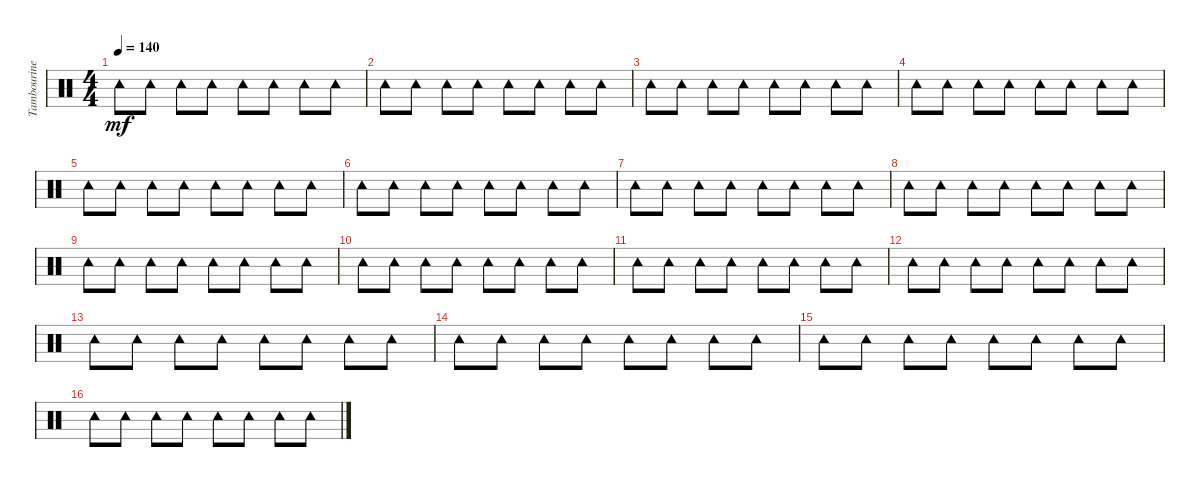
\track ("Tambourine" "Tambourine") {instrument percussion}
\staff {score}
\articulation defaults
\ts (4 4)
\tempo 140
\clef neutral
\ks c "Tambourine (hit)".8{dy mf} "Tambourine (hit)".8 "Tambourine (hit)".8 "Tambourine (hit)".8 "Tambourine (hit)".8 "Tambourine (hit)".8 "Tambourine (hit)".8 "Tambourine (hit)".8
|
"Tambourine (hit)".8 "Tambourine (hit)".8 "Tambourine (hit)".8 "Tambourine (hit)".8 "Tambourine (hit)".8 "Tambourine (hit)".8 "Tambourine (hit)".8 "Tambourine (hit)".8 |
"Tambourine (hit)".8 "Tambourine (hit)".8 "Tambourine (hit)".8 "Tambourine (hit)".8 "Tambourine (hit)".8 "Tambourine (hit)".8 "Tambourine (hit)".8 "Tambourine (hit)".8 |
"Tambourine (hit)".8 "Tambourine (hit)".8 "Tambourine (hit)".8 "Tambourine (hit)".8 "Tambourine (hit)".8 "Tambourine (hit)".8 "Tambourine (hit)".8 "Tambourine (hit)".8 |
"Tambourine (hit)".8 "Tambourine (hit)".8 "Tambourine (hit)".8 "Tambourine (hit)".8 "Tambourine (hit)".8 "Tambourine (hit)".8 "Tambourine (hit)".8 "Tambourine (hit)".8 |
"Tambourine (hit)".8 "Tambourine (hit)".8 "Tambourine (hit)".8 "Tambourine (hit)".8 "Tambourine (hit)".8 "Tambourine (hit)".8 "Tambourine (hit)".8 "Tambourine (hit)".8 |
"Tambourine (hit)".8 "Tambourine (hit)".8 "Tambourine (hit)".8 "Tambourine (hit)".8 "Tambourine (hit)".8 "Tambourine (hit)".8 "Tambourine (hit)".8 "Tambourine (hit)".8 |
"Tambourine (hit)".8 "Tambourine (hit)".8 "Tambourine (hit)".8 "Tambourine (hit)".8 "Tambourine (hit)".8 "Tambourine (hit)".8 "Tambourine (hit)".8 "Tambourine (hit)".8 |
"Tambourine (hit)".8 "Tambourine (hit)".8 "Tambourine (hit)".8 "Tambourine (hit)".8 "Tambourine (hit)".8 "Tambourine (hit)".8 "Tambourine (hit)".8 "Tambourine (hit)".8 |
"Tambourine (hit)".8 "Tambourine (hit)".8 "Tambourine (hit)".8 "Tambourine (hit)".8 "Tambourine (hit)".8 "Tambourine (hit)".8 "Tambourine (hit)".8 "Tambourine (hit)".8 |
"Tambourine (hit)".8 "Tambourine (hit)".8 "Tambourine (hit)".8 "Tambourine (hit)".8 "Tambourine (hit)".8 "Tambourine (hit)".8 "Tambourine (hit)".8 "Tambourine (hit)".8 |
"Tambourine (hit)".8 "Tambourine (hit)".8 "Tambourine (hit)".8 "Tambourine (hit)".8 "Tambourine (hit)".8 "Tambourine (hit)".8 "Tambourine (hit)".8 "Tambourine (hit)".8 |
"Tambourine (hit)".8 "Tambourine (hit)".8 "Tambourine (hit)".8 "Tambourine (hit)".8 "Tambourine (hit)".8 "Tambourine (hit)".8 "Tambourine (hit)".8 "Tambourine (hit)".8 |
"Tambourine (hit)".8 "Tambourine (hit)".8 "Tambourine (hit)".8 "Tambourine (hit)".8 "Tambourine (hit)".8 "Tambourine (hit)".8 "Tambourine (hit)".8 "Tambourine (hit)".8 |
"Tambourine (hit)".8 "Tambourine (hit)".8 "Tambourine (hit)".8 "Tambourine (hit)".8 "Tambourine (hit)".8 "Tambourine (hit)".8 "Tambourine (hit)".8 "Tambourine (hit)".8 |
"Tambourine (hit)".8 "Tambourine (hit)".8 "Tambourine (hit)".8 "Tambourine (hit)".8 "Tambourine (hit)".8 "Tambourine (hit)".8 "Tambourine (hit)".8 "Tambourine (hit)".8
